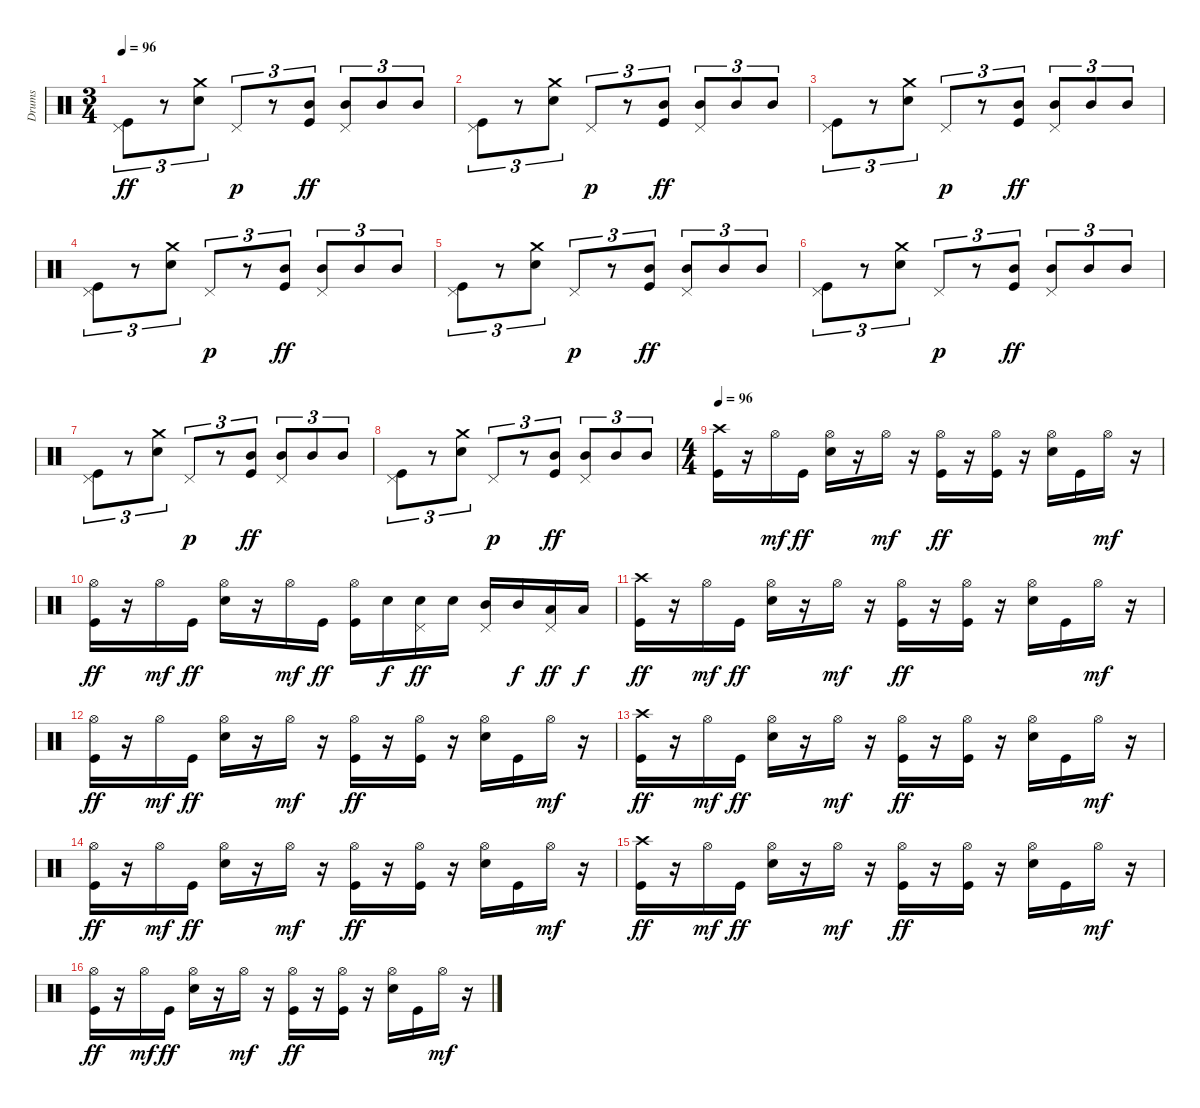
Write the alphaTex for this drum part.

\track ("Drums" "Drums") {instrument percussion}
\staff {score}
\articulation defaults
\ts (3 4)
\tempo 96
\clef neutral
\ks c
("Pedal Hi-Hat (hit)" "Kick (hit)").8{tu (3 2) dy ff} r.8{tu (3 2)} ("Crash medium (hit)" "Snare (hit) 2").8{tu (3 2)} "Pedal Hi-Hat (hit)".8{tu (3 2) dy p} r.8{tu (3 2)} ("Mid Tom (hit)" "Kick (hit)").8{tu (3 2) dy ff} ("Pedal Hi-Hat (hit)" "Mid Tom (hit)").8{tu (3 2)} "Mid Tom (hit)".8{tu (3 2)} "Mid Tom (hit)".8{tu (3 2)} |
("Pedal Hi-Hat (hit)" "Kick (hit)").8{tu (3 2)} r.8{tu (3 2)} ("Crash medium (hit)" "Snare (hit) 2").8{tu (3 2)} "Pedal Hi-Hat (hit)".8{tu (3 2) dy p} r.8{tu (3 2)} ("Mid Tom (hit)" "Kick (hit)").8{tu (3 2) dy ff} ("Pedal Hi-Hat (hit)" "Mid Tom (hit)").8{tu (3 2)} "Mid Tom (hit)".8{tu (3 2)} "Mid Tom (hit)".8{tu (3 2)} |
("Pedal Hi-Hat (hit)" "Kick (hit)").8{tu (3 2)} r.8{tu (3 2)} ("Crash medium (hit)" "Snare (hit) 2").8{tu (3 2)} "Pedal Hi-Hat (hit)".8{tu (3 2) dy p} r.8{tu (3 2)} ("Mid Tom (hit)" "Kick (hit)").8{tu (3 2) dy ff} ("Pedal Hi-Hat (hit)" "Mid Tom (hit)").8{tu (3 2)} "Mid Tom (hit)".8{tu (3 2)} "Mid Tom (hit)".8{tu (3 2)} |
("Pedal Hi-Hat (hit)" "Kick (hit)").8{tu (3 2)} r.8{tu (3 2)} ("Crash medium (hit)" "Snare (hit) 2").8{tu (3 2)} "Pedal Hi-Hat (hit)".8{tu (3 2) dy p} r.8{tu (3 2)} ("Mid Tom (hit)" "Kick (hit)").8{tu (3 2) dy ff} ("Pedal Hi-Hat (hit)" "Mid Tom (hit)").8{tu (3 2)} "Mid Tom (hit)".8{tu (3 2)} "Mid Tom (hit)".8{tu (3 2)} |
("Pedal Hi-Hat (hit)" "Kick (hit)").8{tu (3 2)} r.8{tu (3 2)} ("Crash medium (hit)" "Snare (hit) 2").8{tu (3 2)} "Pedal Hi-Hat (hit)".8{tu (3 2) dy p} r.8{tu (3 2)} ("Mid Tom (hit)" "Kick (hit)").8{tu (3 2) dy ff} ("Pedal Hi-Hat (hit)" "Mid Tom (hit)").8{tu (3 2)} "Mid Tom (hit)".8{tu (3 2)} "Mid Tom (hit)".8{tu (3 2)} |
("Pedal Hi-Hat (hit)" "Kick (hit)").8{tu (3 2)} r.8{tu (3 2)} ("Crash medium (hit)" "Snare (hit) 2").8{tu (3 2)} "Pedal Hi-Hat (hit)".8{tu (3 2) dy p} r.8{tu (3 2)} ("Mid Tom (hit)" "Kick (hit)").8{tu (3 2) dy ff} ("Pedal Hi-Hat (hit)" "Mid Tom (hit)").8{tu (3 2)} "Mid Tom (hit)".8{tu (3 2)} "Mid Tom (hit)".8{tu (3 2)} |
("Pedal Hi-Hat (hit)" "Kick (hit)").8{tu (3 2)} r.8{tu (3 2)} ("Crash medium (hit)" "Snare (hit) 2").8{tu (3 2)} "Pedal Hi-Hat (hit)".8{tu (3 2) dy p} r.8{tu (3 2)} ("Mid Tom (hit)" "Kick (hit)").8{tu (3 2) dy ff} ("Pedal Hi-Hat (hit)" "Mid Tom (hit)").8{tu (3 2)} "Mid Tom (hit)".8{tu (3 2)} "Mid Tom (hit)".8{tu (3 2)} |
("Pedal Hi-Hat (hit)" "Kick (hit)").8{tu (3 2)} r.8{tu (3 2)} ("Crash medium (hit)" "Snare (hit) 2").8{tu (3 2)} "Pedal Hi-Hat (hit)".8{tu (3 2) dy p} r.8{tu (3 2)} ("Mid Tom (hit)" "Kick (hit)").8{tu (3 2) dy ff} ("Pedal Hi-Hat (hit)" "Mid Tom (hit)").8{tu (3 2)} "Mid Tom (hit)".8{tu (3 2)} "Mid Tom (hit)".8{tu (3 2)} |
\ts (4 4)
\tempo 96
("Crash high (hit)" "Kick (hit)").16 r.16 "Hi-Hat (open)".16{dy mf} "Kick (hit)".16{dy ff} ("Hi-Hat (open)" "Snare (hit) 2").16 r.16 "Hi-Hat (open)".16{dy mf} r.16 ("Hi-Hat (open)" "Kick (hit)").16{dy ff} r.16 ("Hi-Hat (open)" "Kick (hit)").16 r.16 ("Hi-Hat (open)" "Snare (hit) 2").16 "Kick (hit)".16 "Hi-Hat (open)".16{dy mf} r.16 |
("Hi-Hat (open)" "Kick (hit)").16{dy ff} r.16 "Hi-Hat (open)".16{dy mf} "Kick (hit)".16{dy ff} ("Hi-Hat (open)" "Snare (hit) 2").16 r.16 "Hi-Hat (open)".16{dy mf} "Kick (hit)".16{dy ff} ("Hi-Hat (open)" "Kick (hit)").16 "Snare (hit) 2".16{dy f} ("Pedal Hi-Hat (hit)" "Snare (hit) 2").16{dy ff} "Snare (hit) 2".16 ("Pedal Hi-Hat (hit)" "Mid Tom (hit)").16 "Mid Tom (hit)".16{dy f} ("Pedal Hi-Hat (hit)" "Low Tom (hit)").16{dy ff} "Low Tom (hit)".16{dy f} |
("Crash high (hit)" "Kick (hit)").16{dy ff} r.16 "Hi-Hat (open)".16{dy mf} "Kick (hit)".16{dy ff} ("Hi-Hat (open)" "Snare (hit) 2").16 r.16 "Hi-Hat (open)".16{dy mf} r.16 ("Hi-Hat (open)" "Kick (hit)").16{dy ff} r.16 ("Hi-Hat (open)" "Kick (hit)").16 r.16 ("Hi-Hat (open)" "Snare (hit) 2").16 "Kick (hit)".16 "Hi-Hat (open)".16{dy mf} r.16 |
("Hi-Hat (open)" "Kick (hit)").16{dy ff} r.16 "Hi-Hat (open)".16{dy mf} "Kick (hit)".16{dy ff} ("Hi-Hat (open)" "Snare (hit) 2").16 r.16 "Hi-Hat (open)".16{dy mf} r.16 ("Hi-Hat (open)" "Kick (hit)").16{dy ff} r.16 ("Hi-Hat (open)" "Kick (hit)").16 r.16 ("Hi-Hat (open)" "Snare (hit) 2").16 "Kick (hit)".16 "Hi-Hat (open)".16{dy mf} r.16 |
("Crash high (hit)" "Kick (hit)").16{dy ff} r.16 "Hi-Hat (open)".16{dy mf} "Kick (hit)".16{dy ff} ("Hi-Hat (open)" "Snare (hit) 2").16 r.16 "Hi-Hat (open)".16{dy mf} r.16 ("Hi-Hat (open)" "Kick (hit)").16{dy ff} r.16 ("Hi-Hat (open)" "Kick (hit)").16 r.16 ("Hi-Hat (open)" "Snare (hit) 2").16 "Kick (hit)".16 "Hi-Hat (open)".16{dy mf} r.16 |
("Hi-Hat (open)" "Kick (hit)").16{dy ff} r.16 "Hi-Hat (open)".16{dy mf} "Kick (hit)".16{dy ff} ("Hi-Hat (open)" "Snare (hit) 2").16 r.16 "Hi-Hat (open)".16{dy mf} r.16 ("Hi-Hat (open)" "Kick (hit)").16{dy ff} r.16 ("Hi-Hat (open)" "Kick (hit)").16 r.16 ("Hi-Hat (open)" "Snare (hit) 2").16 "Kick (hit)".16 "Hi-Hat (open)".16{dy mf} r.16 |
("Crash high (hit)" "Kick (hit)").16{dy ff} r.16 "Hi-Hat (open)".16{dy mf} "Kick (hit)".16{dy ff} ("Hi-Hat (open)" "Snare (hit) 2").16 r.16 "Hi-Hat (open)".16{dy mf} r.16 ("Hi-Hat (open)" "Kick (hit)").16{dy ff} r.16 ("Hi-Hat (open)" "Kick (hit)").16 r.16 ("Hi-Hat (open)" "Snare (hit) 2").16 "Kick (hit)".16 "Hi-Hat (open)".16{dy mf} r.16 |
("Hi-Hat (open)" "Kick (hit)").16{dy ff} r.16 "Hi-Hat (open)".16{dy mf} "Kick (hit)".16{dy ff} ("Hi-Hat (open)" "Snare (hit) 2").16 r.16 "Hi-Hat (open)".16{dy mf} r.16 ("Hi-Hat (open)" "Kick (hit)").16{dy ff} r.16 ("Hi-Hat (open)" "Kick (hit)").16 r.16 ("Hi-Hat (open)" "Snare (hit) 2").16 "Kick (hit)".16 "Hi-Hat (open)".16{dy mf} r.16
